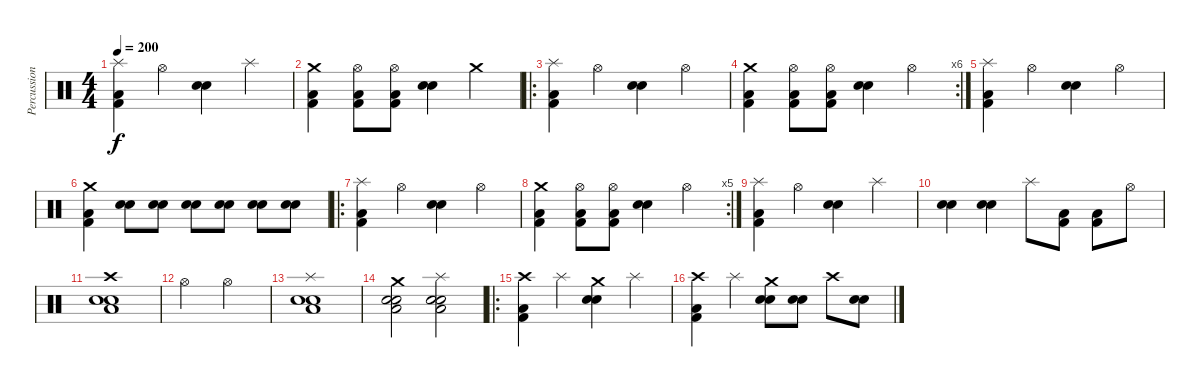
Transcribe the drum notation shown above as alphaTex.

\track ("Percussions" "Percussion") {instrument percussion}
\staff {score}
\articulation defaults
\ts (4 4)
\tempo 200
\clef neutral
\ks c
("Splash (hit)" "Kick (hit) 2" "Low Floor Tom (hit)").4{dy f} "Hi-Hat (open)".4 ("Snare (hit) 2" "Electric Snare (hit)").4 "Splash (hit)".4 |
("Crash medium (hit)" "Kick (hit) 2" "Low Floor Tom (hit)").4 ("Hi-Hat (open)" "Kick (hit) 2" "Low Floor Tom (hit)").8 ("Hi-Hat (open)" "Kick (hit) 2" "Low Floor Tom (hit)").8 ("Snare (hit) 2" "Electric Snare (hit)").4 "Crash medium (hit)".4 |
\ro
("Splash (hit)" "Kick (hit) 2" "Low Floor Tom (hit)").4 "Hi-Hat (open)".4 ("Snare (hit) 2" "Electric Snare (hit)").4 "Hi-Hat (open)".4 |
\rc 6
("Crash medium (hit)" "Kick (hit) 2" "Low Floor Tom (hit)").4 ("Hi-Hat (open)" "Kick (hit) 2" "Low Floor Tom (hit)").8 ("Hi-Hat (open)" "Kick (hit) 2" "Low Floor Tom (hit)").8 ("Snare (hit) 2" "Electric Snare (hit)").4 "Hi-Hat (open)".4 |
("Splash (hit)" "Kick (hit) 2" "Low Floor Tom (hit)").4 "Hi-Hat (open)".4 ("Snare (hit) 2" "Electric Snare (hit)").4 "Hi-Hat (open)".4 |
("Crash medium (hit)" "Kick (hit) 2" "Low Floor Tom (hit)").4 ("Snare (hit) 2" "Electric Snare (hit)").8 ("Snare (hit) 2" "Electric Snare (hit)").8 ("Snare (hit) 2" "Electric Snare (hit)").8 ("Snare (hit) 2" "Electric Snare (hit)").8 ("Snare (hit) 2" "Electric Snare (hit)").8 ("Snare (hit) 2" "Electric Snare (hit)").8 |
\ro
("Splash (hit)" "Kick (hit) 2" "Low Floor Tom (hit)").4 "Hi-Hat (open)".4 ("Snare (hit) 2" "Electric Snare (hit)").4 "Hi-Hat (open)".4 |
\rc 5
("Crash medium (hit)" "Kick (hit) 2" "Low Floor Tom (hit)").4 ("Hi-Hat (open)" "Kick (hit) 2" "Low Floor Tom (hit)").8 ("Hi-Hat (open)" "Kick (hit) 2" "Low Floor Tom (hit)").8 ("Snare (hit) 2" "Electric Snare (hit)").4 "Hi-Hat (open)".4 |
("Splash (hit)" "Kick (hit) 2" "Low Floor Tom (hit)").4 "Hi-Hat (open)".4 ("Snare (hit) 2" "Electric Snare (hit)").4 "Splash (hit)".4 |
("Snare (hit) 2" "Snare (hit) 2").4 ("Snare (hit) 2" "Snare (hit) 2").4 "Splash (hit)".8 ("Kick (hit) 2" "Low Floor Tom (hit)").8 ("Kick (hit) 2" "Low Floor Tom (hit)").8 "Hi-Hat (open)".8 |
("Crash high (hit)" "Snare (hit) 2" "Electric Snare (hit)" "Low Floor Tom (hit)").1 |
"Hi-Hat (open)".2 "Hi-Hat (open)".2 |
("Splash (hit)" "Snare (hit) 2" "Electric Snare (hit)" "Low Floor Tom (hit)").1 |
("Crash medium (hit)" "Snare (hit) 2" "Electric Snare (hit)" "Low Floor Tom (hit)").2 ("Splash (hit)" "Snare (hit) 2" "Electric Snare (hit)" "Low Floor Tom (hit)").2 |
\ro
("Crash high (hit)" "Kick (hit) 2" "Low Floor Tom (hit)").4 "Splash (hit)".4 ("Crash medium (hit)" "Snare (hit) 2" "Electric Snare (hit)").4 "Splash (hit)".4 |
("Crash high (hit)" "Kick (hit) 2" "Low Floor Tom (hit)").4 "Splash (hit)".4 ("Crash medium (hit)" "Snare (hit) 2" "Electric Snare (hit)").8 ("Snare (hit) 2" "Electric Snare (hit)").8 "Crash high (hit)".8 ("Snare (hit) 2" "Electric Snare (hit)").8
